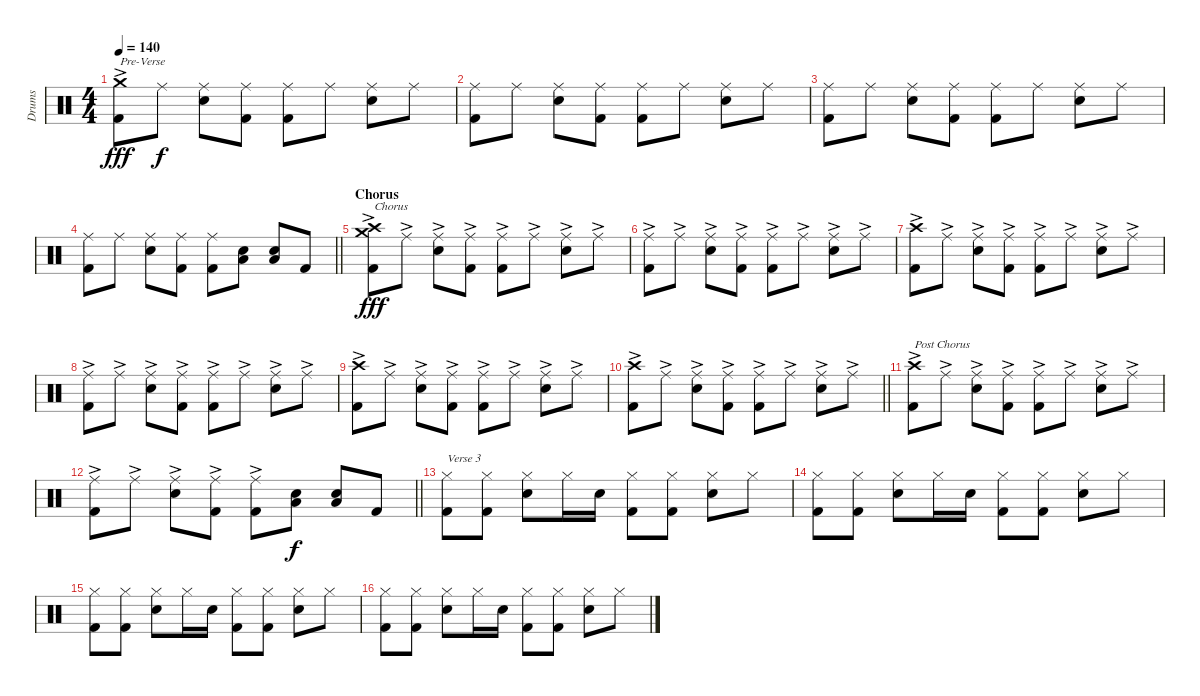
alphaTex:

\track ("Drums" "Drums") {instrument percussion}
\staff {score}
\articulation defaults
\ts (4 4)
\tempo 140
\clef neutral
\ks c
("Crash medium (hit)"{ac} "Kick (hit) 2").8{txt "Pre-Verse" dy fff} "Ride (middle)".8{dy f} ("Ride (middle)" "Electric Snare (hit)").8 ("Ride (middle)" "Kick (hit) 2").8 ("Ride (middle)" "Kick (hit) 2").8 "Ride (middle)".8 ("Ride (middle)" "Electric Snare (hit)").8 "Ride (middle)".8 |
("Ride (middle)" "Kick (hit) 2").8 "Ride (middle)".8 ("Ride (middle)" "Electric Snare (hit)").8 ("Ride (middle)" "Kick (hit) 2").8 ("Ride (middle)" "Kick (hit) 2").8 "Ride (middle)".8 ("Ride (middle)" "Electric Snare (hit)").8 "Ride (middle)".8 |
("Ride (middle)" "Kick (hit) 2").8 "Ride (middle)".8 ("Ride (middle)" "Electric Snare (hit)").8 ("Ride (middle)" "Kick (hit) 2").8 ("Ride (middle)" "Kick (hit) 2").8 "Ride (middle)".8 ("Ride (middle)" "Electric Snare (hit)").8 "Ride (middle)".8 |
\barLineRight lightlight
("Ride (middle)" "Kick (hit) 2").8 "Ride (middle)".8 ("Ride (middle)" "Electric Snare (hit)").8 ("Ride (middle)" "Kick (hit) 2").8 ("Ride (middle)" "Kick (hit) 2").8 ("Electric Snare (hit)" "Low Floor Tom (hit)").8 ("Electric Snare (hit)" "Low Floor Tom (hit)").8 "Kick (hit) 2".8 |
\section ("" "Chorus")
("Crash medium (hit)"{ac} "Crash high (hit)"{ac} "Kick (hit) 2").8{txt "Chorus" dy fff} "Ride (middle)"{ac}.8 ("Ride (middle)"{ac} "Electric Snare (hit)").8 ("Ride (middle)"{ac} "Kick (hit) 2").8 ("Ride (middle)"{ac} "Kick (hit) 2").8 "Ride (middle)"{ac}.8 ("Ride (middle)"{ac} "Electric Snare (hit)").8 "Ride (middle)"{ac}.8 |
("Ride (middle)"{ac} "Kick (hit) 2").8 "Ride (middle)"{ac}.8 ("Ride (middle)"{ac} "Electric Snare (hit)").8 ("Ride (middle)"{ac} "Kick (hit) 2").8 ("Ride (middle)"{ac} "Kick (hit) 2").8 "Ride (middle)"{ac}.8 ("Ride (middle)"{ac} "Electric Snare (hit)").8 "Ride (middle)"{ac}.8 |
("Crash high (hit)"{ac} "Kick (hit) 2").8 "Ride (middle)"{ac}.8 ("Ride (middle)"{ac} "Electric Snare (hit)").8 ("Ride (middle)"{ac} "Kick (hit) 2").8 ("Ride (middle)"{ac} "Kick (hit) 2").8 "Ride (middle)"{ac}.8 ("Ride (middle)"{ac} "Electric Snare (hit)").8 "Ride (middle)"{ac}.8 |
("Ride (middle)"{ac} "Kick (hit) 2").8 "Ride (middle)"{ac}.8 ("Ride (middle)"{ac} "Electric Snare (hit)").8 ("Ride (middle)"{ac} "Kick (hit) 2").8 ("Ride (middle)"{ac} "Kick (hit) 2").8 "Ride (middle)"{ac}.8 ("Ride (middle)"{ac} "Electric Snare (hit)").8 "Ride (middle)"{ac}.8 |
("Crash high (hit)"{ac} "Kick (hit) 2").8 "Ride (middle)"{ac}.8 ("Ride (middle)"{ac} "Electric Snare (hit)").8 ("Ride (middle)"{ac} "Kick (hit) 2").8 ("Ride (middle)"{ac} "Kick (hit) 2").8 "Ride (middle)"{ac}.8 ("Ride (middle)"{ac} "Electric Snare (hit)").8 "Ride (middle)"{ac}.8 |
\barLineRight lightlight
("Crash high (hit)"{ac} "Kick (hit) 2").8 "Ride (middle)"{ac}.8 ("Ride (middle)"{ac} "Electric Snare (hit)").8 ("Ride (middle)"{ac} "Kick (hit) 2").8 ("Ride (middle)"{ac} "Kick (hit) 2").8 "Ride (middle)"{ac}.8 ("Ride (middle)"{ac} "Electric Snare (hit)").8 "Ride (middle)"{ac}.8 |
("Crash high (hit)"{ac} "Kick (hit) 2").8{txt "Post Chorus"} "Ride (middle)"{ac}.8 ("Ride (middle)"{ac} "Electric Snare (hit)").8 ("Ride (middle)"{ac} "Kick (hit) 2").8 ("Ride (middle)"{ac} "Kick (hit) 2").8 "Ride (middle)"{ac}.8 ("Ride (middle)"{ac} "Electric Snare (hit)").8 "Ride (middle)"{ac}.8 |
\barLineRight lightlight
("Ride (middle)"{ac} "Kick (hit) 2").8 "Ride (middle)"{ac}.8 ("Ride (middle)"{ac} "Electric Snare (hit)").8 ("Ride (middle)"{ac} "Kick (hit) 2").8 ("Ride (middle)"{ac} "Kick (hit) 2").8 ("Electric Snare (hit)" "Low Floor Tom (hit)").8{dy f} ("Electric Snare (hit)" "Low Floor Tom (hit)").8 "Kick (hit) 2".8 |
("Hi-Hat (closed)" "Kick (hit) 2").8{txt "Verse 3"} ("Hi-Hat (closed)" "Kick (hit) 2").8 ("Hi-Hat (closed)" "Electric Snare (hit)").8 "Hi-Hat (closed)".16 "Electric Snare (hit)".16 ("Hi-Hat (closed)" "Kick (hit) 2").8 ("Hi-Hat (closed)" "Kick (hit) 2").8 ("Hi-Hat (closed)" "Electric Snare (hit)").8 "Hi-Hat (closed)".8 |
("Hi-Hat (closed)" "Kick (hit) 2").8 ("Hi-Hat (closed)" "Kick (hit) 2").8 ("Hi-Hat (closed)" "Electric Snare (hit)").8 "Hi-Hat (closed)".16 "Electric Snare (hit)".16 ("Hi-Hat (closed)" "Kick (hit) 2").8 ("Hi-Hat (closed)" "Kick (hit) 2").8 ("Hi-Hat (closed)" "Electric Snare (hit)").8 "Hi-Hat (closed)".8 |
("Hi-Hat (closed)" "Kick (hit) 2").8 ("Hi-Hat (closed)" "Kick (hit) 2").8 ("Hi-Hat (closed)" "Electric Snare (hit)").8 "Hi-Hat (closed)".16 "Electric Snare (hit)".16 ("Hi-Hat (closed)" "Kick (hit) 2").8 ("Hi-Hat (closed)" "Kick (hit) 2").8 ("Hi-Hat (closed)" "Electric Snare (hit)").8 "Hi-Hat (closed)".8 |
("Hi-Hat (closed)" "Kick (hit) 2").8 ("Hi-Hat (closed)" "Kick (hit) 2").8 ("Hi-Hat (closed)" "Electric Snare (hit)").8 "Hi-Hat (closed)".16 "Electric Snare (hit)".16 ("Hi-Hat (closed)" "Kick (hit) 2").8 ("Hi-Hat (closed)" "Kick (hit) 2").8 ("Hi-Hat (closed)" "Electric Snare (hit)").8 "Hi-Hat (closed)".8
